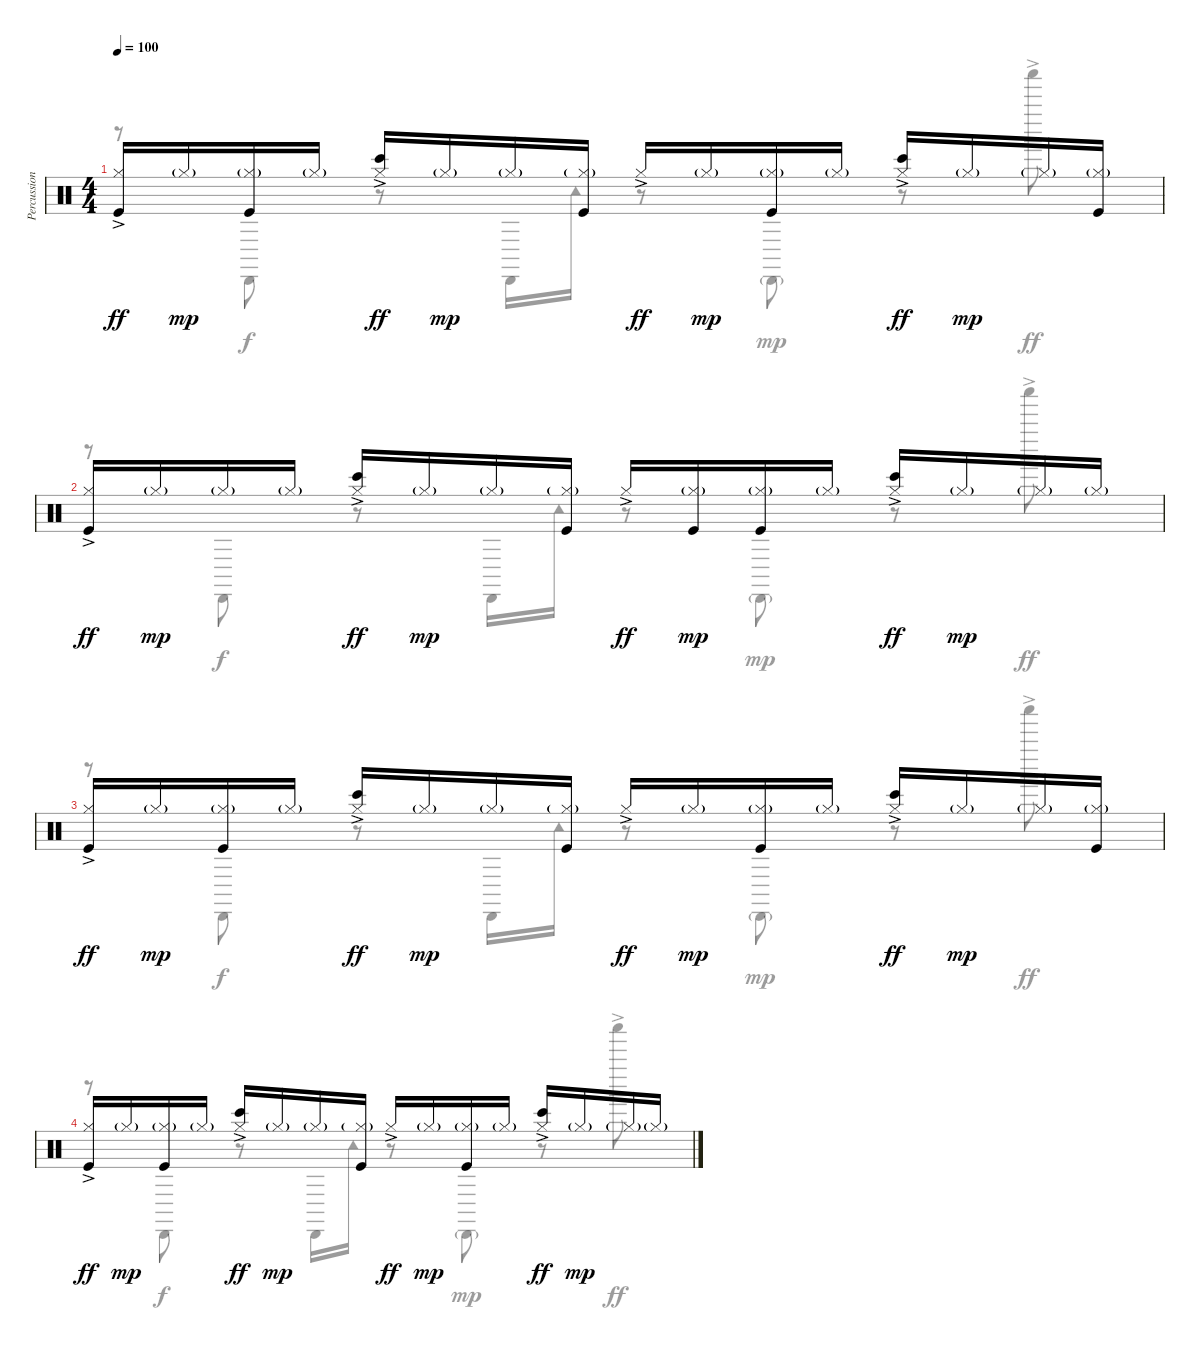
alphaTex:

\track ("Percussions" "Percussion") {instrument percussion}
\staff {score}
\articulation defaults
\voice
\ts (4 4)
\tempo 100
\clef neutral
\ks c
("Kick (hit)" "Hi-Hat (closed)"{ac}).16{dy ff} "Hi-Hat (closed)"{g}.16{dy mp} ("Kick (hit)" "Hi-Hat (closed)"{g}).16 "Hi-Hat (closed)"{g}.16 ("Bongo High (hit)" "Hi-Hat (closed)"{ac}).16{dy ff} "Hi-Hat (closed)"{g}.16{dy mp} "Hi-Hat (closed)"{g}.16 ("Kick (hit)" "Hi-Hat (closed)"{g}).16 "Hi-Hat (closed)"{ac}.16{dy ff} "Hi-Hat (closed)"{g}.16{dy mp} ("Kick (hit)" "Hi-Hat (closed)"{g}).16 "Hi-Hat (closed)"{g}.16 ("Bongo High (hit)" "Hi-Hat (closed)"{ac}).16{dy ff} "Hi-Hat (closed)"{g}.16{dy mp} "Hi-Hat (closed)"{g}.16 ("Kick (hit)" "Hi-Hat (closed)"{g}).16 |
("Kick (hit)" "Hi-Hat (closed)"{ac}).16{dy ff} "Hi-Hat (closed)"{g}.16{dy mp} "Hi-Hat (closed)"{g}.16 "Hi-Hat (closed)"{g}.16 ("Bongo High (hit)" "Hi-Hat (closed)"{ac}).16{dy ff} "Hi-Hat (closed)"{g}.16{dy mp} "Hi-Hat (closed)"{g}.16 ("Kick (hit)" "Hi-Hat (closed)"{g}).16 "Hi-Hat (closed)"{ac}.16{dy ff} ("Kick (hit)" "Hi-Hat (closed)"{g}).16{dy mp} ("Kick (hit)" "Hi-Hat (closed)"{g}).16 "Hi-Hat (closed)"{g}.16 ("Bongo High (hit)" "Hi-Hat (closed)"{ac}).16{dy ff} "Hi-Hat (closed)"{g}.16{dy mp} "Hi-Hat (closed)"{g}.16 "Hi-Hat (closed)"{g}.16 |
("Kick (hit)" "Hi-Hat (closed)"{ac}).16{dy ff} "Hi-Hat (closed)"{g}.16{dy mp} ("Kick (hit)" "Hi-Hat (closed)"{g}).16 "Hi-Hat (closed)"{g}.16 ("Bongo High (hit)" "Hi-Hat (closed)"{ac}).16{dy ff} "Hi-Hat (closed)"{g}.16{dy mp} "Hi-Hat (closed)"{g}.16 ("Kick (hit)" "Hi-Hat (closed)"{g}).16 "Hi-Hat (closed)"{ac}.16{dy ff} "Hi-Hat (closed)"{g}.16{dy mp} ("Kick (hit)" "Hi-Hat (closed)"{g}).16 "Hi-Hat (closed)"{g}.16 ("Bongo High (hit)" "Hi-Hat (closed)"{ac}).16{dy ff} "Hi-Hat (closed)"{g}.16{dy mp} "Hi-Hat (closed)"{g}.16 ("Kick (hit)" "Hi-Hat (closed)"{g}).16 |
("Kick (hit)" "Hi-Hat (closed)"{ac}).16{dy ff} "Hi-Hat (closed)"{g}.16{dy mp} ("Kick (hit)" "Hi-Hat (closed)"{g}).16 "Hi-Hat (closed)"{g}.16 ("Bongo High (hit)" "Hi-Hat (closed)"{ac}).16{dy ff} "Hi-Hat (closed)"{g}.16{dy mp} "Hi-Hat (closed)"{g}.16 ("Kick (hit)" "Hi-Hat (closed)"{g}).16 "Hi-Hat (closed)"{ac}.16{dy ff} "Hi-Hat (closed)"{g}.16{dy mp} ("Kick (hit)" "Hi-Hat (closed)"{g}).16 "Hi-Hat (closed)"{g}.16 ("Bongo High (hit)" "Hi-Hat (closed)"{ac}).16{dy ff} "Hi-Hat (closed)"{g}.16{dy mp} "Hi-Hat (closed)"{g}.16 "Hi-Hat (closed)"{g}.16
\voice
\clef neutral
\ottava regular
\simile none
\ks c
r.8{dy ff} "Cabasa (hit)".8{dy f} r.8 "Cabasa (hit)".16 "Tambourine (hit)".16 r.8 "Cabasa (hit)"{g}.8{dy mp} r.8 "Shaker (hit)"{ac}.8{dy ff} |
r.8 "Cabasa (hit)".8{dy f} r.8 "Cabasa (hit)".16 "Tambourine (hit)".16 r.8 "Cabasa (hit)"{g}.8{dy mp} r.8 "Shaker (hit)"{ac}.8{dy ff} |
r.8 "Cabasa (hit)".8{dy f} r.8 "Cabasa (hit)".16 "Tambourine (hit)".16 r.8 "Cabasa (hit)"{g}.8{dy mp} r.8 "Shaker (hit)"{ac}.8{dy ff} |
r.8 "Cabasa (hit)".8{dy f} r.8 "Cabasa (hit)".16 "Tambourine (hit)".16 r.8 "Cabasa (hit)"{g}.8{dy mp} r.8 "Shaker (hit)"{ac}.8{dy ff}
